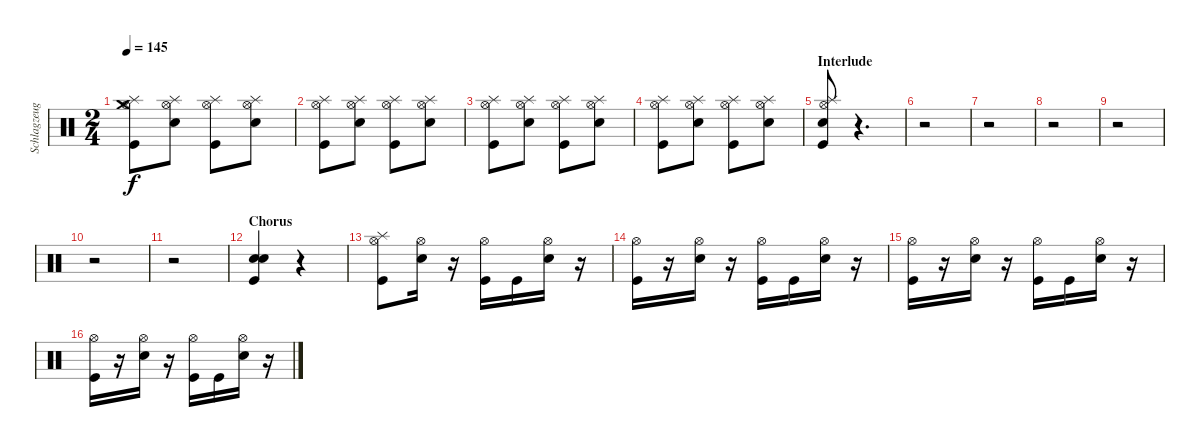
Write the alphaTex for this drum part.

\track ("Schlagzeug - Bela B." "Schlagzeug") {instrument percussion}
\staff {score}
\articulation defaults
\ts (2 4)
\tempo 145
\clef neutral
\ks c
("Kick (hit)" "Hi-Hat (open)" "Splash (hit)" "Crash medium (hit)").8{dy f} ("Electric Snare (hit)" "Hi-Hat (open)" "Splash (hit)").8 ("Kick (hit)" "Hi-Hat (open)" "Splash (hit)").8 ("Electric Snare (hit)" "Hi-Hat (open)" "Splash (hit)").8 |
("Kick (hit)" "Hi-Hat (open)" "Splash (hit)").8 ("Electric Snare (hit)" "Hi-Hat (open)" "Splash (hit)").8 ("Kick (hit)" "Hi-Hat (open)" "Splash (hit)").8 ("Electric Snare (hit)" "Hi-Hat (open)" "Splash (hit)").8 |
("Kick (hit)" "Hi-Hat (open)" "Splash (hit)").8 ("Electric Snare (hit)" "Hi-Hat (open)" "Splash (hit)").8 ("Kick (hit)" "Hi-Hat (open)" "Splash (hit)").8 ("Electric Snare (hit)" "Hi-Hat (open)" "Splash (hit)").8 |
("Kick (hit)" "Hi-Hat (open)" "Splash (hit)").8 ("Electric Snare (hit)" "Hi-Hat (open)" "Splash (hit)").8 ("Kick (hit)" "Hi-Hat (open)" "Splash (hit)").8 ("Electric Snare (hit)" "Hi-Hat (open)" "Splash (hit)").8 |
\section ("" "Interlude")
("Kick (hit)" "Hi-Hat (open)" "Splash (hit)" "Snare (hit) 2").8 r.4{d} |
r.2 |
r.2 |
r.2 |
r.2 |
r.2 |
r.2 |
\section ("" "Chorus")
("Kick (hit)" "Electric Snare (hit)" "Snare (hit) 2").4 r.4 |
("Kick (hit)" "Hi-Hat (open)" "Splash (hit)").8 ("Electric Snare (hit)" "Hi-Hat (open)").16 r.16 ("Kick (hit)" "Hi-Hat (open)").16 "Kick (hit)".16 ("Electric Snare (hit)" "Hi-Hat (open)").16 r.16 |
("Kick (hit)" "Hi-Hat (open)").16 r.16 ("Electric Snare (hit)" "Hi-Hat (open)").16 r.16 ("Kick (hit)" "Hi-Hat (open)").16 "Kick (hit)".16 ("Electric Snare (hit)" "Hi-Hat (open)").16 r.16 |
("Kick (hit)" "Hi-Hat (open)").16 r.16 ("Electric Snare (hit)" "Hi-Hat (open)").16 r.16 ("Kick (hit)" "Hi-Hat (open)").16 "Kick (hit)".16 ("Electric Snare (hit)" "Hi-Hat (open)").16 r.16 |
("Kick (hit)" "Hi-Hat (open)").16 r.16 ("Electric Snare (hit)" "Hi-Hat (open)").16 r.16 ("Kick (hit)" "Hi-Hat (open)").16 "Kick (hit)".16 ("Electric Snare (hit)" "Hi-Hat (open)").16 r.16
